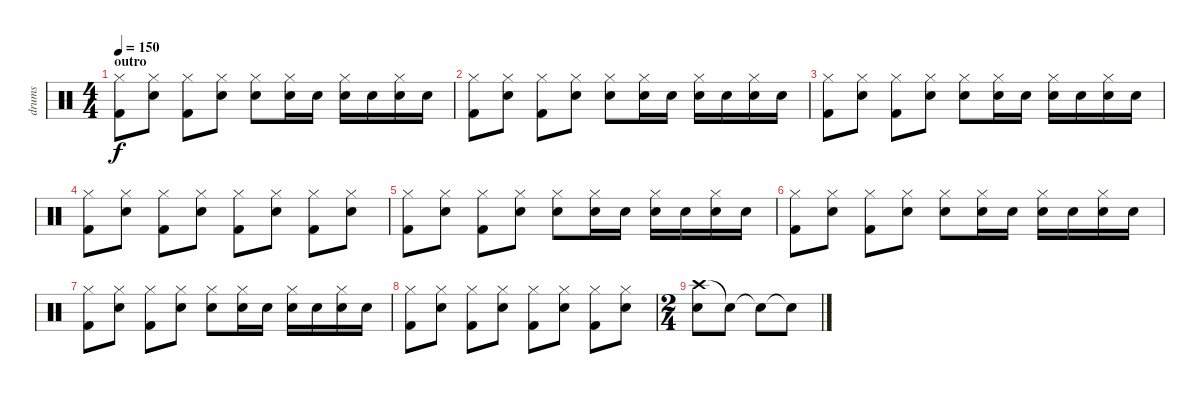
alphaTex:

\track ("drums" "drums") {instrument percussion}
\staff {score}
\articulation defaults
\ts (4 4)
\section ("" "outro")
\tempo 150
\clef neutral
\ks c
("Hi-Hat (closed)" "Kick (hit) 2").8{dy f} ("Hi-Hat (closed)" "Snare (hit) 2").8 ("Hi-Hat (closed)" "Kick (hit) 2").8 ("Hi-Hat (closed)" "Snare (hit) 2").8 ("Hi-Hat (closed)" "Snare (hit) 2").8 ("Hi-Hat (closed)" "Snare (hit) 2").16 "Snare (hit) 2".16 ("Hi-Hat (closed)" "Snare (hit) 2").16 "Snare (hit) 2".16 ("Hi-Hat (closed)" "Snare (hit) 2").16 "Snare (hit) 2".16 |
("Hi-Hat (closed)" "Kick (hit) 2").8 ("Hi-Hat (closed)" "Snare (hit) 2").8 ("Hi-Hat (closed)" "Kick (hit) 2").8 ("Hi-Hat (closed)" "Snare (hit) 2").8 ("Hi-Hat (closed)" "Snare (hit) 2").8 ("Hi-Hat (closed)" "Snare (hit) 2").16 "Snare (hit) 2".16 ("Hi-Hat (closed)" "Snare (hit) 2").16 "Snare (hit) 2".16 ("Hi-Hat (closed)" "Snare (hit) 2").16 "Snare (hit) 2".16 |
("Hi-Hat (closed)" "Kick (hit) 2").8 ("Hi-Hat (closed)" "Snare (hit) 2").8 ("Hi-Hat (closed)" "Kick (hit) 2").8 ("Hi-Hat (closed)" "Snare (hit) 2").8 ("Hi-Hat (closed)" "Snare (hit) 2").8 ("Hi-Hat (closed)" "Snare (hit) 2").16 "Snare (hit) 2".16 ("Hi-Hat (closed)" "Snare (hit) 2").16 "Snare (hit) 2".16 ("Hi-Hat (closed)" "Snare (hit) 2").16 "Snare (hit) 2".16 |
("Hi-Hat (closed)" "Kick (hit) 2").8 ("Hi-Hat (closed)" "Snare (hit) 2").8 ("Hi-Hat (closed)" "Kick (hit) 2").8 ("Hi-Hat (closed)" "Snare (hit) 2").8 ("Hi-Hat (closed)" "Kick (hit) 2").8 ("Hi-Hat (closed)" "Snare (hit) 2").8 ("Hi-Hat (closed)" "Kick (hit) 2").8 ("Hi-Hat (closed)" "Snare (hit) 2").8 |
("Hi-Hat (closed)" "Kick (hit) 2").8 ("Hi-Hat (closed)" "Snare (hit) 2").8 ("Hi-Hat (closed)" "Kick (hit) 2").8 ("Hi-Hat (closed)" "Snare (hit) 2").8 ("Hi-Hat (closed)" "Snare (hit) 2").8 ("Hi-Hat (closed)" "Snare (hit) 2").16 "Snare (hit) 2".16 ("Hi-Hat (closed)" "Snare (hit) 2").16 "Snare (hit) 2".16 ("Hi-Hat (closed)" "Snare (hit) 2").16 "Snare (hit) 2".16 |
("Hi-Hat (closed)" "Kick (hit) 2").8 ("Hi-Hat (closed)" "Snare (hit) 2").8 ("Hi-Hat (closed)" "Kick (hit) 2").8 ("Hi-Hat (closed)" "Snare (hit) 2").8 ("Hi-Hat (closed)" "Snare (hit) 2").8 ("Hi-Hat (closed)" "Snare (hit) 2").16 "Snare (hit) 2".16 ("Hi-Hat (closed)" "Snare (hit) 2").16 "Snare (hit) 2".16 ("Hi-Hat (closed)" "Snare (hit) 2").16 "Snare (hit) 2".16 |
("Hi-Hat (closed)" "Kick (hit) 2").8 ("Hi-Hat (closed)" "Snare (hit) 2").8 ("Hi-Hat (closed)" "Kick (hit) 2").8 ("Hi-Hat (closed)" "Snare (hit) 2").8 ("Hi-Hat (closed)" "Snare (hit) 2").8 ("Hi-Hat (closed)" "Snare (hit) 2").16 "Snare (hit) 2".16 ("Hi-Hat (closed)" "Snare (hit) 2").16 "Snare (hit) 2".16 ("Hi-Hat (closed)" "Snare (hit) 2").16 "Snare (hit) 2".16 |
("Hi-Hat (closed)" "Kick (hit) 2").8 ("Hi-Hat (closed)" "Snare (hit) 2").8 ("Hi-Hat (closed)" "Kick (hit) 2").8 ("Hi-Hat (closed)" "Snare (hit) 2").8 ("Hi-Hat (closed)" "Kick (hit) 2").8 ("Hi-Hat (closed)" "Snare (hit) 2").8 ("Hi-Hat (closed)" "Kick (hit) 2").8 ("Hi-Hat (closed)" "Snare (hit) 2").8 |
\ts (2 4)
("Crash high (hit)" "Snare (hit) 2").8 "Snare (hit)"{t}.8 "Snare (hit)"{t}.8 "Snare (hit)"{t}.8
